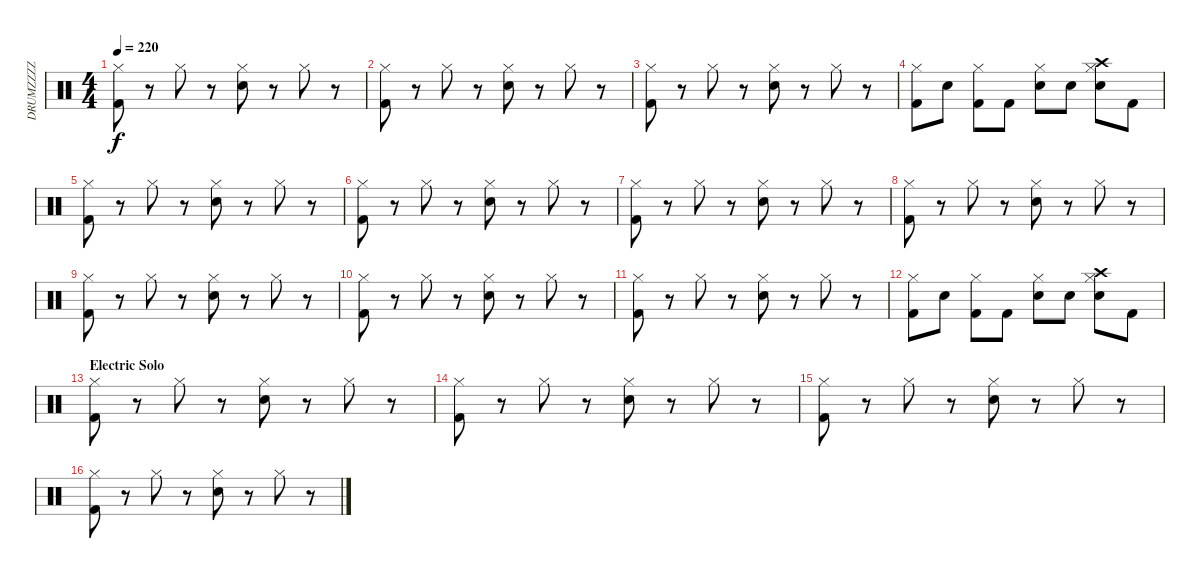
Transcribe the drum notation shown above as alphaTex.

\track ("DRUMZZZZ" "DRUMZZZZ") {instrument percussion}
\staff {score}
\articulation defaults
\ts (4 4)
\tempo 220
\clef neutral
\ks c
("Hi-Hat (closed)" "Kick (hit) 2").8{dy f} r.8 "Hi-Hat (closed)".8 r.8 ("Hi-Hat (closed)" "Snare (hit) 2").8 r.8 "Hi-Hat (closed)".8 r.8 |
("Hi-Hat (closed)" "Kick (hit) 2").8 r.8 "Hi-Hat (closed)".8 r.8 ("Hi-Hat (closed)" "Snare (hit) 2").8 r.8 "Hi-Hat (closed)".8 r.8 |
("Hi-Hat (closed)" "Kick (hit) 2").8 r.8 "Hi-Hat (closed)".8 r.8 ("Hi-Hat (closed)" "Snare (hit) 2").8 r.8 "Hi-Hat (closed)".8 r.8 |
("Hi-Hat (closed)" "Kick (hit) 2").8 "Snare (hit) 2".8 ("Hi-Hat (closed)" "Kick (hit) 2").8 "Kick (hit) 2".8 ("Hi-Hat (closed)" "Electric Snare (hit)").8 "Snare (hit) 2".8 ("Crash high (hit)" "Hi-Hat (closed)" "Snare (hit) 2").8 "Kick (hit) 2".8 |
("Hi-Hat (closed)" "Kick (hit) 2").8 r.8 "Hi-Hat (closed)".8 r.8 ("Hi-Hat (closed)" "Snare (hit) 2").8 r.8 "Hi-Hat (closed)".8 r.8 |
("Hi-Hat (closed)" "Kick (hit) 2").8 r.8 "Hi-Hat (closed)".8 r.8 ("Hi-Hat (closed)" "Snare (hit) 2").8 r.8 "Hi-Hat (closed)".8 r.8 |
("Hi-Hat (closed)" "Kick (hit) 2").8 r.8 "Hi-Hat (closed)".8 r.8 ("Hi-Hat (closed)" "Snare (hit) 2").8 r.8 "Hi-Hat (closed)".8 r.8 |
("Hi-Hat (closed)" "Kick (hit) 2").8 r.8 "Hi-Hat (closed)".8 r.8 ("Hi-Hat (closed)" "Snare (hit) 2").8 r.8 "Hi-Hat (closed)".8 r.8 |
("Hi-Hat (closed)" "Kick (hit) 2").8 r.8 "Hi-Hat (closed)".8 r.8 ("Hi-Hat (closed)" "Snare (hit) 2").8 r.8 "Hi-Hat (closed)".8 r.8 |
("Hi-Hat (closed)" "Kick (hit) 2").8 r.8 "Hi-Hat (closed)".8 r.8 ("Hi-Hat (closed)" "Snare (hit) 2").8 r.8 "Hi-Hat (closed)".8 r.8 |
("Hi-Hat (closed)" "Kick (hit) 2").8 r.8 "Hi-Hat (closed)".8 r.8 ("Hi-Hat (closed)" "Snare (hit) 2").8 r.8 "Hi-Hat (closed)".8 r.8 |
("Hi-Hat (closed)" "Kick (hit) 2").8 "Snare (hit) 2".8 ("Hi-Hat (closed)" "Kick (hit) 2").8 "Kick (hit) 2".8 ("Hi-Hat (closed)" "Electric Snare (hit)").8 "Snare (hit) 2".8 ("Crash high (hit)" "Hi-Hat (closed)" "Snare (hit) 2").8 "Kick (hit) 2".8 |
\section ("" "Electric Solo")
("Hi-Hat (closed)" "Kick (hit) 2").8 r.8 "Hi-Hat (closed)".8 r.8 ("Hi-Hat (closed)" "Snare (hit) 2").8 r.8 "Hi-Hat (closed)".8 r.8 |
("Hi-Hat (closed)" "Kick (hit) 2").8 r.8 "Hi-Hat (closed)".8 r.8 ("Hi-Hat (closed)" "Snare (hit) 2").8 r.8 "Hi-Hat (closed)".8 r.8 |
("Hi-Hat (closed)" "Kick (hit) 2").8 r.8 "Hi-Hat (closed)".8 r.8 ("Hi-Hat (closed)" "Snare (hit) 2").8 r.8 "Hi-Hat (closed)".8 r.8 |
("Hi-Hat (closed)" "Kick (hit) 2").8 r.8 "Hi-Hat (closed)".8 r.8 ("Hi-Hat (closed)" "Snare (hit) 2").8 r.8 "Hi-Hat (closed)".8 r.8
